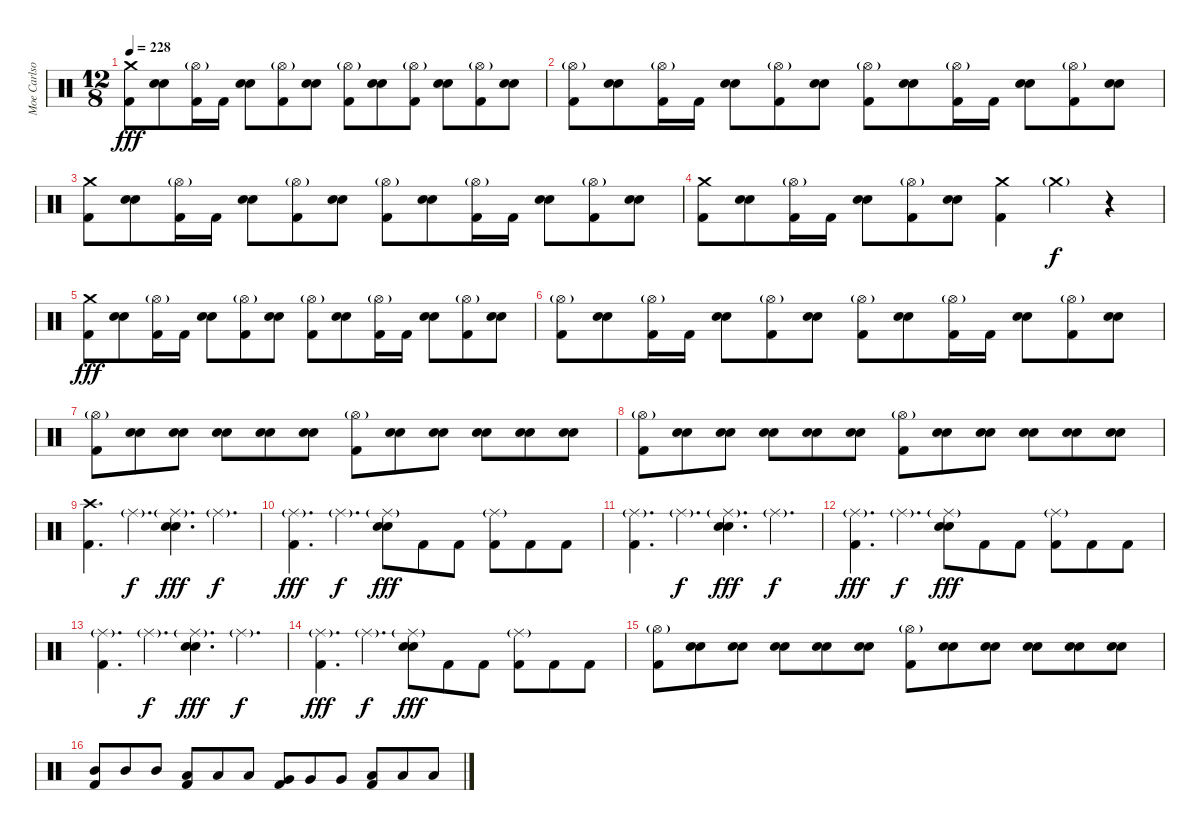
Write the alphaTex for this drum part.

\track ("Moe Carlson" "Moe Carlso") {instrument percussion}
\staff {score}
\articulation defaults
\ts (12 8)
\tempo 228
\clef neutral
\ks c
("Crash medium (hit)" "Kick (hit) 2").8{dy fff} ("Snare (hit) 2" "Electric Snare (hit)").8 ("Hi-Hat (open)"{g} "Kick (hit) 2").16 "Kick (hit) 2".16 ("Snare (hit) 2" "Electric Snare (hit)").8 ("Hi-Hat (open)"{g} "Kick (hit) 2").8 ("Snare (hit) 2" "Electric Snare (hit)").8 ("Hi-Hat (open)"{g} "Kick (hit) 2").8 ("Snare (hit) 2" "Electric Snare (hit)").8 ("Hi-Hat (open)"{g} "Kick (hit) 2").8 ("Snare (hit) 2" "Electric Snare (hit)").8 ("Hi-Hat (open)"{g} "Kick (hit) 2").8 ("Snare (hit) 2" "Electric Snare (hit)").8 |
("Hi-Hat (open)"{g} "Kick (hit) 2").8 ("Snare (hit) 2" "Electric Snare (hit)").8 ("Hi-Hat (open)"{g} "Kick (hit) 2").16 "Kick (hit) 2".16 ("Snare (hit) 2" "Electric Snare (hit)").8 ("Hi-Hat (open)"{g} "Kick (hit) 2").8 ("Snare (hit) 2" "Electric Snare (hit)").8 ("Hi-Hat (open)"{g} "Kick (hit) 2").8 ("Snare (hit) 2" "Electric Snare (hit)").8 ("Hi-Hat (open)"{g} "Kick (hit) 2").16 "Kick (hit) 2".16 ("Snare (hit) 2" "Electric Snare (hit)").8 ("Hi-Hat (open)"{g} "Kick (hit) 2").8 ("Snare (hit) 2" "Electric Snare (hit)").8 |
("Crash medium (hit)" "Kick (hit) 2").8 ("Snare (hit) 2" "Electric Snare (hit)").8 ("Hi-Hat (open)"{g} "Kick (hit) 2").16 "Kick (hit) 2".16 ("Snare (hit) 2" "Electric Snare (hit)").8 ("Hi-Hat (open)"{g} "Kick (hit) 2").8 ("Snare (hit) 2" "Electric Snare (hit)").8 ("Hi-Hat (open)"{g} "Kick (hit) 2").8 ("Snare (hit) 2" "Electric Snare (hit)").8 ("Hi-Hat (open)"{g} "Kick (hit) 2").16 "Kick (hit) 2".16 ("Snare (hit) 2" "Electric Snare (hit)").8 ("Hi-Hat (open)"{g} "Kick (hit) 2").8 ("Snare (hit) 2" "Electric Snare (hit)").8 |
("Crash medium (hit)" "Kick (hit) 2").8 ("Snare (hit) 2" "Electric Snare (hit)").8 ("Hi-Hat (open)"{g} "Kick (hit) 2").16 "Kick (hit) 2".16 ("Snare (hit) 2" "Electric Snare (hit)").8 ("Hi-Hat (open)"{g} "Kick (hit) 2").8 ("Snare (hit) 2" "Electric Snare (hit)").8 ("Crash medium (hit)" "Kick (hit) 2").4 "Crash medium (hit)"{g}.4{dy f} r.4 |
("Crash medium (hit)" "Kick (hit) 2").8{dy fff} ("Snare (hit) 2" "Electric Snare (hit)").8 ("Hi-Hat (open)"{g} "Kick (hit) 2").16 "Kick (hit) 2".16 ("Snare (hit) 2" "Electric Snare (hit)").8 ("Hi-Hat (open)"{g} "Kick (hit) 2").8 ("Snare (hit) 2" "Electric Snare (hit)").8 ("Hi-Hat (open)"{g} "Kick (hit) 2").8 ("Snare (hit) 2" "Electric Snare (hit)").8 ("Hi-Hat (open)"{g} "Kick (hit) 2").16 "Kick (hit) 2".16 ("Snare (hit) 2" "Electric Snare (hit)").8 ("Hi-Hat (open)"{g} "Kick (hit) 2").8 ("Snare (hit) 2" "Electric Snare (hit)").8 |
("Hi-Hat (open)"{g} "Kick (hit) 2").8 ("Snare (hit) 2" "Electric Snare (hit)").8 ("Hi-Hat (open)"{g} "Kick (hit) 2").16 "Kick (hit) 2".16 ("Snare (hit) 2" "Electric Snare (hit)").8 ("Hi-Hat (open)"{g} "Kick (hit) 2").8 ("Snare (hit) 2" "Electric Snare (hit)").8 ("Hi-Hat (open)"{g} "Kick (hit) 2").8 ("Snare (hit) 2" "Electric Snare (hit)").8 ("Hi-Hat (open)"{g} "Kick (hit) 2").16 "Kick (hit) 2".16 ("Snare (hit) 2" "Electric Snare (hit)").8 ("Hi-Hat (open)"{g} "Kick (hit) 2").8 ("Snare (hit) 2" "Electric Snare (hit)").8 |
("Hi-Hat (open)"{g} "Kick (hit) 2").8 ("Snare (hit) 2" "Electric Snare (hit)").8 ("Snare (hit) 2" "Electric Snare (hit)").8 ("Snare (hit) 2" "Electric Snare (hit)").8 ("Snare (hit) 2" "Electric Snare (hit)").8 ("Snare (hit) 2" "Electric Snare (hit)").8 ("Hi-Hat (open)"{g} "Kick (hit) 2").8 ("Snare (hit) 2" "Electric Snare (hit)").8 ("Snare (hit) 2" "Electric Snare (hit)").8 ("Snare (hit) 2" "Electric Snare (hit)").8 ("Snare (hit) 2" "Electric Snare (hit)").8 ("Snare (hit) 2" "Electric Snare (hit)").8 |
("Hi-Hat (open)"{g} "Kick (hit) 2").8 ("Snare (hit) 2" "Electric Snare (hit)").8 ("Snare (hit) 2" "Electric Snare (hit)").8 ("Snare (hit) 2" "Electric Snare (hit)").8 ("Snare (hit) 2" "Electric Snare (hit)").8 ("Snare (hit) 2" "Electric Snare (hit)").8 ("Hi-Hat (open)"{g} "Kick (hit) 2").8 ("Snare (hit) 2" "Electric Snare (hit)").8 ("Snare (hit) 2" "Electric Snare (hit)").8 ("Snare (hit) 2" "Electric Snare (hit)").8 ("Snare (hit) 2" "Electric Snare (hit)").8 ("Snare (hit) 2" "Electric Snare (hit)").8 |
("Crash high (hit)" "Kick (hit) 2").4{d} "Ride (middle)"{g}.4{d dy f} ("Ride (middle)"{g} "Snare (hit) 2" "Electric Snare (hit)").4{d dy fff} "Ride (middle)"{g}.4{d dy f} |
("Ride (middle)"{g} "Kick (hit) 2").4{d dy fff} "Ride (middle)"{g}.4{d dy f} ("Ride (middle)"{g} "Snare (hit) 2" "Electric Snare (hit)").8{dy fff} "Kick (hit) 2".8 "Kick (hit) 2".8 ("Ride (middle)"{g} "Kick (hit) 2").8 "Kick (hit) 2".8 "Kick (hit) 2".8 |
("Ride (middle)"{g} "Kick (hit) 2").4{d} "Ride (middle)"{g}.4{d dy f} ("Ride (middle)"{g} "Snare (hit) 2" "Electric Snare (hit)").4{d dy fff} "Ride (middle)"{g}.4{d dy f} |
("Ride (middle)"{g} "Kick (hit) 2").4{d dy fff} "Ride (middle)"{g}.4{d dy f} ("Ride (middle)"{g} "Snare (hit) 2" "Electric Snare (hit)").8{dy fff} "Kick (hit) 2".8 "Kick (hit) 2".8 ("Ride (middle)"{g} "Kick (hit) 2").8 "Kick (hit) 2".8 "Kick (hit) 2".8 |
("Ride (middle)"{g} "Kick (hit) 2").4{d} "Ride (middle)"{g}.4{d dy f} ("Ride (middle)"{g} "Snare (hit) 2" "Electric Snare (hit)").4{d dy fff} "Ride (middle)"{g}.4{d dy f} |
("Ride (middle)"{g} "Kick (hit) 2").4{d dy fff} "Ride (middle)"{g}.4{d dy f} ("Ride (middle)"{g} "Snare (hit) 2" "Electric Snare (hit)").8{dy fff} "Kick (hit) 2".8 "Kick (hit) 2".8 ("Ride (middle)"{g} "Kick (hit) 2").8 "Kick (hit) 2".8 "Kick (hit) 2".8 |
("Hi-Hat (open)"{g} "Kick (hit) 2").8 ("Snare (hit) 2" "Electric Snare (hit)").8 ("Snare (hit) 2" "Electric Snare (hit)").8 ("Snare (hit) 2" "Electric Snare (hit)").8 ("Snare (hit) 2" "Electric Snare (hit)").8 ("Snare (hit) 2" "Electric Snare (hit)").8 ("Hi-Hat (open)"{g} "Kick (hit) 2").8 ("Snare (hit) 2" "Electric Snare (hit)").8 ("Snare (hit) 2" "Electric Snare (hit)").8 ("Snare (hit) 2" "Electric Snare (hit)").8 ("Snare (hit) 2" "Electric Snare (hit)").8 ("Snare (hit) 2" "Electric Snare (hit)").8 |
("Mid Tom (hit)" "Kick (hit) 2").8 "Mid Tom (hit)".8 "Mid Tom (hit)".8 ("Low Tom (hit)" "Kick (hit) 2").8 "Low Tom (hit)".8 "Low Tom (hit)".8 ("Very Low Tom (hit)" "Kick (hit) 2").8 "Very Low Tom (hit)".8 "Very Low Tom (hit)".8 ("Low Floor Tom (hit)" "Kick (hit) 2").8 "Low Floor Tom (hit)".8 "Low Floor Tom (hit)".8
